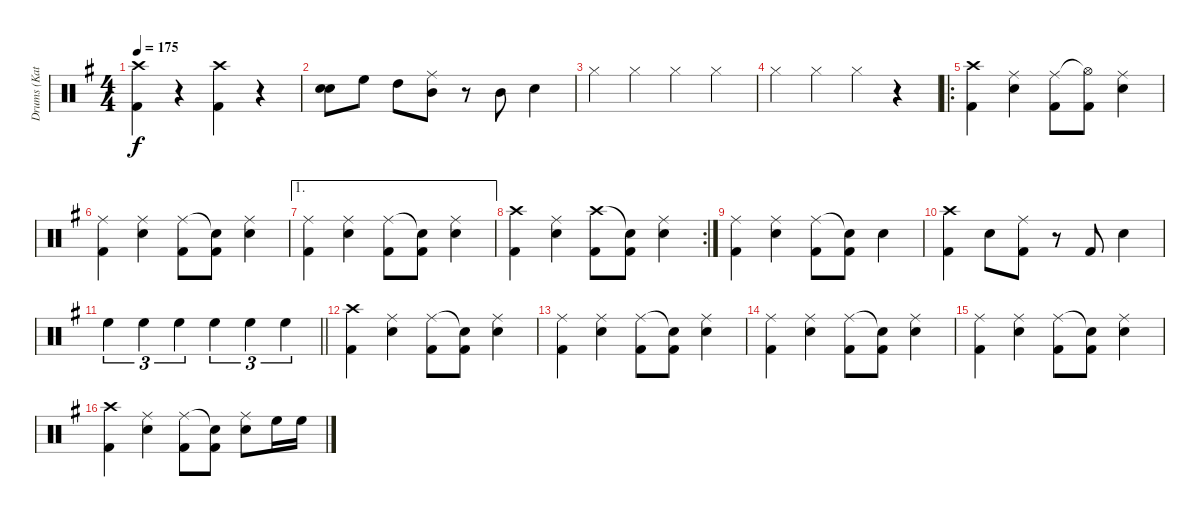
\track ("Drums (Katsuji)" "Drums (Kat") {instrument percussion}
\staff {score}
\articulation defaults
\ts (4 4)
\tempo 175
\clef neutral
\ks g
("Crash high (hit)" "Kick (hit) 2").4{dy f} r.4 ("Crash high (hit)" "Kick (hit) 2").4 r.4 |
("Snare (hit) 2" "Snare (hit) 2").8 "High Floor Tom (hit)".8 "High Tom (hit)".8 ("Ride (middle)" "Mid Tom (hit)").8 r.8 "Mid Tom (hit)".8 "Snare (hit) 2".4 |
"Hi-Hat (closed)".4 "Hi-Hat (closed)".4 "Hi-Hat (closed)".4 "Hi-Hat (closed)".4 |
"Hi-Hat (closed)".4 "Hi-Hat (closed)".4 "Hi-Hat (closed)".4 r.4 |
\ro
("Crash high (hit)" "Kick (hit) 2").4 ("Ride (middle)" "Snare (hit) 2").4 ("Ride (middle)" "Kick (hit) 2").8 ("Hi-Hat (open)"{t} "Kick (hit) 2").8 ("Ride (middle)" "Snare (hit) 2").4 |
("Ride (middle)" "Kick (hit) 2").4 ("Ride (middle)" "Snare (hit) 2").4 ("Ride (middle)" "Kick (hit) 2").8 ("Snare (hit)"{t} "Kick (hit) 2").8 ("Ride (middle)" "Snare (hit) 2").4 |
\ae 1
("Ride (middle)" "Kick (hit) 2").4 ("Ride (middle)" "Snare (hit) 2").4 ("Ride (middle)" "Kick (hit) 2").8 ("Snare (hit)"{t} "Kick (hit) 2").8 ("Ride (middle)" "Snare (hit) 2").4 |
\rc 2
("Crash high (hit)" "Kick (hit) 2").4 ("Ride (middle)" "Snare (hit) 2").4 ("Crash high (hit)" "Kick (hit) 2").8 ("Snare (hit)"{t} "Kick (hit) 2").8 ("Ride (middle)" "Snare (hit) 2").4 |
("Ride (middle)" "Kick (hit) 2").4 ("Ride (middle)" "Snare (hit) 2").4 ("Ride (middle)" "Kick (hit) 2").8 ("Snare (hit)"{t} "Kick (hit) 2").8 "Snare (hit) 2".4 |
("Crash high (hit)" "Kick (hit) 2").4 "Snare (hit) 2".8 ("Ride (middle)" "Kick (hit) 2").8 r.8 "Kick (hit) 2".8 "Snare (hit) 2".4 |
\barLineRight lightlight "High Floor Tom (hit)".4{tu (3 2)} "High Floor Tom (hit)".4{tu (3 2)} "High Floor Tom (hit)".4{tu (3 2)} "High Floor Tom (hit)".4{tu (3 2)} "High Floor Tom (hit)".4{tu (3 2)} "High Floor Tom (hit)".4{tu (3 2)}
|
("Crash high (hit)" "Kick (hit) 2").4 ("Ride (middle)" "Snare (hit) 2").4 ("Ride (middle)" "Kick (hit) 2").8 ("Snare (hit)"{t} "Kick (hit) 2").8 ("Ride (middle)" "Snare (hit) 2").4 |
("Ride (middle)" "Kick (hit) 2").4 ("Ride (middle)" "Snare (hit) 2").4 ("Ride (middle)" "Kick (hit) 2").8 ("Snare (hit)"{t} "Kick (hit) 2").8 ("Ride (middle)" "Snare (hit) 2").4 |
("Ride (middle)" "Kick (hit) 2").4 ("Ride (middle)" "Snare (hit) 2").4 ("Ride (middle)" "Kick (hit) 2").8 ("Snare (hit)"{t} "Kick (hit) 2").8 ("Ride (middle)" "Snare (hit) 2").4 |
("Ride (middle)" "Kick (hit) 2").4 ("Ride (middle)" "Snare (hit) 2").4 ("Ride (middle)" "Kick (hit) 2").8 ("Snare (hit)"{t} "Kick (hit) 2").8 ("Ride (middle)" "Snare (hit) 2").4 |
("Crash high (hit)" "Kick (hit) 2").4 ("Ride (middle)" "Snare (hit) 2").4 ("Ride (middle)" "Kick (hit) 2").8 ("Snare (hit)"{t} "Kick (hit) 2").8 ("Ride (middle)" "Snare (hit) 2").8 "High Floor Tom (hit)".16 "High Floor Tom (hit)".16
